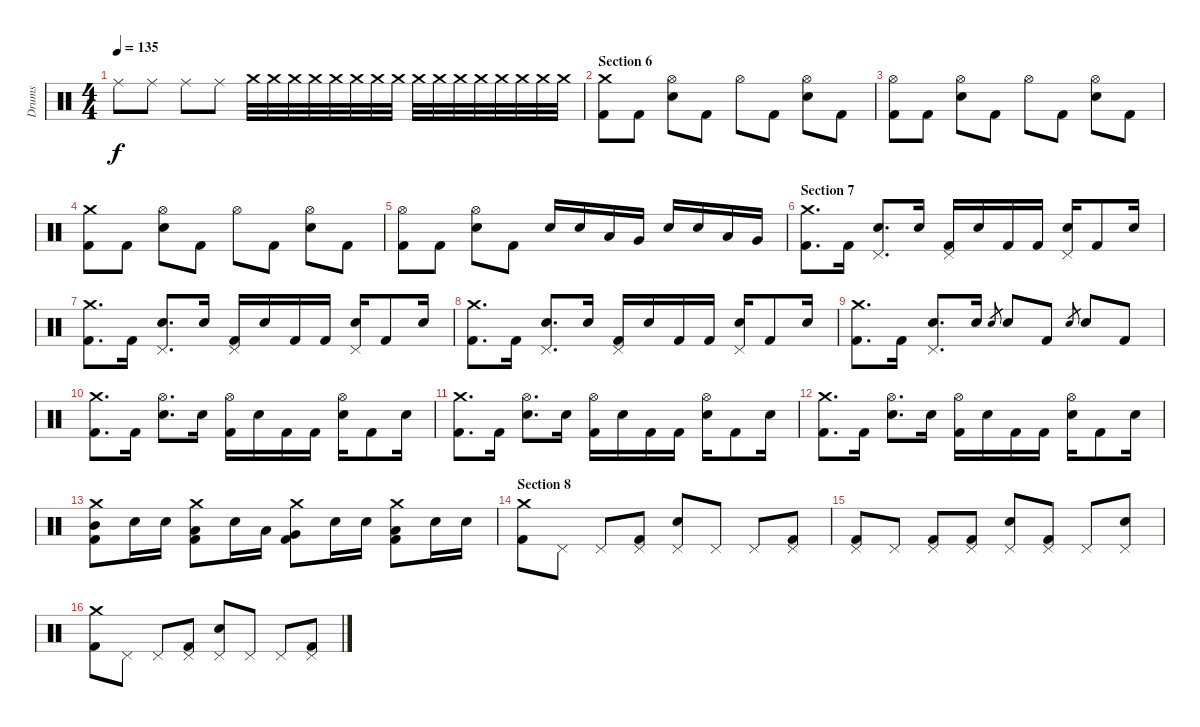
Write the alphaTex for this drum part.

\track ("Drums" "Drums") {instrument percussion}
\staff {score}
\articulation defaults
\ts (4 4)
\tempo 135
\clef neutral
\ks c "Ride (middle)".8{dy f} "Ride (middle)".8 "Ride (middle)".8 "Ride (middle)".8{volume 0} "Crash medium (hit)".32{volume 13} "Crash medium (hit)".32 "Crash medium (hit)".32 "Crash medium (hit)".32 "Crash medium (hit)".32 "Crash medium (hit)".32 "Crash medium (hit)".32 "Crash medium (hit)".32 "Crash medium (hit)".32 "Crash medium (hit)".32 "Crash medium (hit)".32 "Crash medium (hit)".32 "Crash medium (hit)".32 "Crash medium (hit)".32 "Crash medium (hit)".32 "Crash medium (hit)".32
|
\section ("" "Section 6")
("Crash medium (hit)" "Kick (hit) 2").8 "Kick (hit) 2".8 ("Hi-Hat (open)" "Electric Snare (hit)").8 "Kick (hit) 2".8 "Hi-Hat (open)".8 "Kick (hit) 2".8 ("Hi-Hat (open)" "Electric Snare (hit)").8 "Kick (hit) 2".8 |
("Hi-Hat (open)" "Kick (hit) 2").8 "Kick (hit) 2".8 ("Hi-Hat (open)" "Electric Snare (hit)").8 "Kick (hit) 2".8 "Hi-Hat (open)".8 "Kick (hit) 2".8 ("Hi-Hat (open)" "Electric Snare (hit)").8 "Kick (hit) 2".8 |
("Crash medium (hit)" "Kick (hit) 2").8 "Kick (hit) 2".8 ("Hi-Hat (open)" "Electric Snare (hit)").8 "Kick (hit) 2".8 "Hi-Hat (open)".8 "Kick (hit) 2".8 ("Hi-Hat (open)" "Electric Snare (hit)").8 "Kick (hit) 2".8 |
("Hi-Hat (open)" "Kick (hit) 2").8 "Kick (hit) 2".8 ("Hi-Hat (open)" "Electric Snare (hit)").8 "Kick (hit) 2".8 "Electric Snare (hit)".16 "Electric Snare (hit)".16 "Low Tom (hit)".16 "Very Low Tom (hit)".16 "Electric Snare (hit)".16 "Electric Snare (hit)".16 "Low Tom (hit)".16 "Very Low Tom (hit)".16 |
\section ("" "Section 7")
("Crash medium (hit)" "Kick (hit) 2").8{d} "Kick (hit) 2".16 ("Pedal Hi-Hat (hit)" "Electric Snare (hit)").8{d} "Electric Snare (hit)".16 ("Pedal Hi-Hat (hit)" "Kick (hit) 2").16 "Electric Snare (hit)".16 "Kick (hit) 2".16 "Kick (hit) 2".16 ("Pedal Hi-Hat (hit)" "Electric Snare (hit)").16 "Kick (hit) 2".8 "Electric Snare (hit)".16 |
("Crash medium (hit)" "Kick (hit) 2").8{d} "Kick (hit) 2".16 ("Pedal Hi-Hat (hit)" "Electric Snare (hit)").8{d} "Electric Snare (hit)".16 ("Pedal Hi-Hat (hit)" "Kick (hit) 2").16 "Electric Snare (hit)".16 "Kick (hit) 2".16 "Kick (hit) 2".16 ("Pedal Hi-Hat (hit)" "Electric Snare (hit)").16 "Kick (hit) 2".8 "Electric Snare (hit)".16 |
("Crash medium (hit)" "Kick (hit) 2").8{d} "Kick (hit) 2".16 ("Pedal Hi-Hat (hit)" "Electric Snare (hit)").8{d} "Electric Snare (hit)".16 ("Pedal Hi-Hat (hit)" "Kick (hit) 2").16 "Electric Snare (hit)".16 "Kick (hit) 2".16 "Kick (hit) 2".16 ("Pedal Hi-Hat (hit)" "Electric Snare (hit)").16 "Kick (hit) 2".8 "Electric Snare (hit)".16 |
("Crash medium (hit)" "Kick (hit) 2").8{d} "Kick (hit) 2".16 ("Pedal Hi-Hat (hit)" "Electric Snare (hit)").8{d} "Electric Snare (hit)".16 "Electric Snare (hit)".8{gr} "Electric Snare (hit)".8 "Kick (hit) 2".8 "Electric Snare (hit)".8{gr} "Electric Snare (hit)".8 "Kick (hit) 2".8 |
("Crash medium (hit)" "Kick (hit) 2").8{d} "Kick (hit) 2".16 ("Hi-Hat (open)" "Electric Snare (hit)").8{d} "Electric Snare (hit)".16 ("Hi-Hat (open)" "Kick (hit) 2").16 "Electric Snare (hit)".16 "Kick (hit) 2".16 "Kick (hit) 2".16 ("Hi-Hat (open)" "Electric Snare (hit)").16 "Kick (hit) 2".8 "Electric Snare (hit)".16 |
("Crash medium (hit)" "Kick (hit) 2").8{d} "Kick (hit) 2".16 ("Hi-Hat (open)" "Electric Snare (hit)").8{d} "Electric Snare (hit)".16 ("Hi-Hat (open)" "Kick (hit) 2").16 "Electric Snare (hit)".16 "Kick (hit) 2".16 "Kick (hit) 2".16 ("Hi-Hat (open)" "Electric Snare (hit)").16 "Kick (hit) 2".8 "Electric Snare (hit)".16 |
("Crash medium (hit)" "Kick (hit) 2").8{d} "Kick (hit) 2".16 ("Hi-Hat (open)" "Electric Snare (hit)").8{d} "Electric Snare (hit)".16 ("Hi-Hat (open)" "Kick (hit) 2").16 "Electric Snare (hit)".16 "Kick (hit) 2".16 "Kick (hit) 2".16 ("Hi-Hat (open)" "Electric Snare (hit)").16 "Kick (hit) 2".8 "Electric Snare (hit)".16 |
("Crash medium (hit)" "Kick (hit) 2" "Mid Tom (hit)").8 "Electric Snare (hit)".16 "Electric Snare (hit)".16 ("Crash medium (hit)" "Kick (hit) 2" "Low Tom (hit)").8 "Electric Snare (hit)".16 "Low Tom (hit)".16 ("Crash medium (hit)" "Kick (hit) 2" "Very Low Tom (hit)").8 "Electric Snare (hit)".16 "Electric Snare (hit)".16 ("Crash medium (hit)" "Kick (hit) 2" "Low Tom (hit)").8 "Electric Snare (hit)".16 "Electric Snare (hit)".16 |
\section ("" "Section 8")
("Crash medium (hit)" "Kick (hit) 2").8 "Pedal Hi-Hat (hit)".8 "Pedal Hi-Hat (hit)".8 ("Pedal Hi-Hat (hit)" "Kick (hit) 2").8 ("Pedal Hi-Hat (hit)" "Electric Snare (hit)").8 "Pedal Hi-Hat (hit)".8 "Pedal Hi-Hat (hit)".8 ("Pedal Hi-Hat (hit)" "Kick (hit) 2").8 |
("Pedal Hi-Hat (hit)" "Kick (hit) 2").8 "Pedal Hi-Hat (hit)".8 ("Pedal Hi-Hat (hit)" "Kick (hit) 2").8 ("Pedal Hi-Hat (hit)" "Kick (hit) 2").8 ("Pedal Hi-Hat (hit)" "Electric Snare (hit)").8 ("Pedal Hi-Hat (hit)" "Kick (hit) 2").8 "Pedal Hi-Hat (hit)".8 ("Pedal Hi-Hat (hit)" "Electric Snare (hit)").8 |
("Crash medium (hit)" "Kick (hit) 2").8 "Pedal Hi-Hat (hit)".8 "Pedal Hi-Hat (hit)".8 ("Pedal Hi-Hat (hit)" "Kick (hit) 2").8 ("Pedal Hi-Hat (hit)" "Electric Snare (hit)").8 "Pedal Hi-Hat (hit)".8 "Pedal Hi-Hat (hit)".8 ("Pedal Hi-Hat (hit)" "Kick (hit) 2").8
